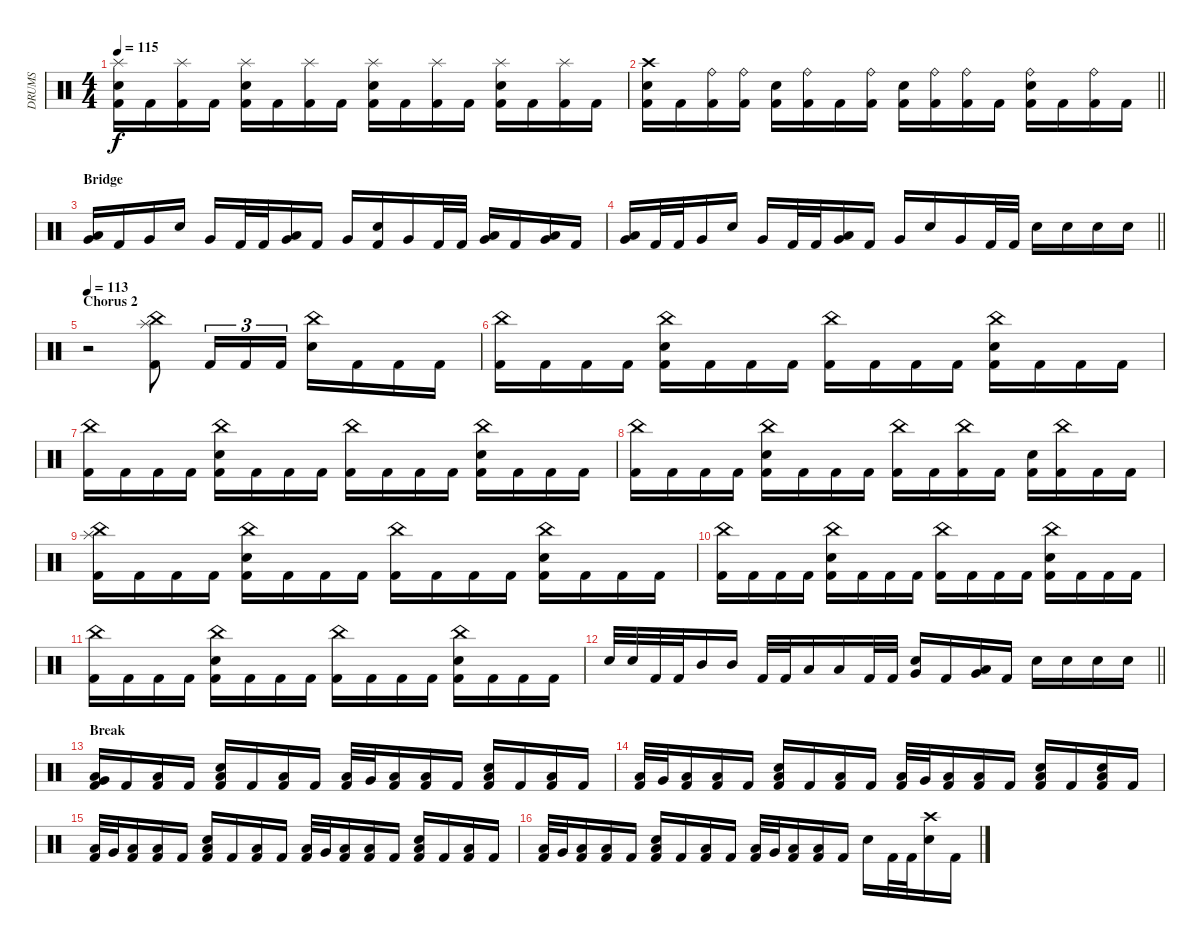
\track ("DRUMS" "DRUMS") {instrument percussion}
\staff {score}
\articulation defaults
\ts (4 4)
\tempo 115
\clef neutral
\ks c
("Splash (hit)" "Electric Snare (hit)" "Kick (hit) 2").16{dy f} "Kick (hit) 2".16 ("Splash (hit)" "Kick (hit) 2").16 "Kick (hit) 2".16 ("Splash (hit)" "Electric Snare (hit)" "Kick (hit) 2").16 "Kick (hit) 2".16 ("Splash (hit)" "Kick (hit) 2").16 "Kick (hit) 2".16 ("Splash (hit)" "Electric Snare (hit)" "Kick (hit) 2").16 "Kick (hit) 2".16 ("Splash (hit)" "Kick (hit) 2").16 "Kick (hit) 2".16 ("Splash (hit)" "Electric Snare (hit)" "Kick (hit) 2").16 "Kick (hit) 2".16 ("Splash (hit)" "Kick (hit) 2").16 "Kick (hit) 2".16 |
\barLineRight lightlight
("Crash high (hit)" "Electric Snare (hit)" "Kick (hit) 2").16 "Kick (hit) 2".16 ("Ride (bell)" "Kick (hit) 2").16 ("Ride (bell)" "Kick (hit) 2").16 ("Electric Snare (hit)" "Kick (hit) 2").16 ("Ride (bell)" "Kick (hit) 2").16 "Kick (hit) 2".16 ("Ride (bell)" "Kick (hit) 2").16 ("Electric Snare (hit)" "Kick (hit) 2").16 ("Ride (bell)" "Kick (hit) 2").16 ("Ride (bell)" "Kick (hit) 2").16 "Kick (hit) 2".16 ("Ride (bell)" "Electric Snare (hit)" "Kick (hit) 2").16 "Kick (hit) 2".16 ("Ride (bell)" "Kick (hit) 2").16 "Kick (hit) 2".16 |
\section ("" "Bridge")
("Low Tom (hit)" "Very Low Tom (hit)").16 "Kick (hit) 2".16 "Very Low Tom (hit)".16 "Electric Snare (hit)".16 "Very Low Tom (hit)".16 "Kick (hit) 2".32 "Kick (hit) 2".32 ("Low Tom (hit)" "Very Low Tom (hit)").16 "Kick (hit) 2".16 "Very Low Tom (hit)".16 ("Electric Snare (hit)" "Kick (hit) 2").16 "Very Low Tom (hit)".16 "Kick (hit) 2".32 "Kick (hit) 2".32 ("Low Tom (hit)" "Very Low Tom (hit)").16 "Kick (hit) 2".16 ("Low Tom (hit)" "Very Low Tom (hit)").16 "Kick (hit) 2".16 |
\barLineRight lightlight
("Low Tom (hit)" "Very Low Tom (hit)").16 "Kick (hit) 2".32 "Kick (hit) 2".32 "Very Low Tom (hit)".16 "Electric Snare (hit)".16 "Very Low Tom (hit)".16 "Kick (hit) 2".32 "Kick (hit) 2".32 ("Low Tom (hit)" "Very Low Tom (hit)").16 "Kick (hit) 2".16 "Very Low Tom (hit)".16 "Electric Snare (hit)".16 "Very Low Tom (hit)".16 "Kick (hit) 2".32 "Kick (hit) 2".32 "Electric Snare (hit)".16 "Electric Snare (hit)".16 "Electric Snare (hit)".16 "Electric Snare (hit)".16 |
\section ("" "Chorus 2")
\tempo 113
r.2 ("China (hit)" "Splash (hit)" "Kick (hit) 2").8 "Kick (hit) 2".16{tu (3 2)} "Kick (hit) 2".16{tu (3 2)} "Kick (hit) 2".16{tu (3 2)} ("China (hit)" "Electric Snare (hit)").16 "Kick (hit) 2".16 "Kick (hit) 2".16 "Kick (hit) 2".16 |
("China (hit)" "Kick (hit) 2").16 "Kick (hit) 2".16 "Kick (hit) 2".16 "Kick (hit) 2".16 ("China (hit)" "Electric Snare (hit)" "Kick (hit) 2").16 "Kick (hit) 2".16 "Kick (hit) 2".16 "Kick (hit) 2".16 ("China (hit)" "Kick (hit) 2").16 "Kick (hit) 2".16 "Kick (hit) 2".16 "Kick (hit) 2".16 ("China (hit)" "Electric Snare (hit)" "Kick (hit) 2").16 "Kick (hit) 2".16 "Kick (hit) 2".16 "Kick (hit) 2".16 |
("China (hit)" "Kick (hit) 2").16 "Kick (hit) 2".16 "Kick (hit) 2".16 "Kick (hit) 2".16 ("China (hit)" "Electric Snare (hit)" "Kick (hit) 2").16 "Kick (hit) 2".16 "Kick (hit) 2".16 "Kick (hit) 2".16 ("China (hit)" "Kick (hit) 2").16 "Kick (hit) 2".16 "Kick (hit) 2".16 "Kick (hit) 2".16 ("China (hit)" "Electric Snare (hit)" "Kick (hit) 2").16 "Kick (hit) 2".16 "Kick (hit) 2".16 "Kick (hit) 2".16 |
("China (hit)" "Kick (hit) 2").16 "Kick (hit) 2".16 "Kick (hit) 2".16 "Kick (hit) 2".16 ("China (hit)" "Electric Snare (hit)" "Kick (hit) 2").16 "Kick (hit) 2".16 "Kick (hit) 2".16 "Kick (hit) 2".16 ("China (hit)" "Kick (hit) 2").16 "Kick (hit) 2".16 ("China (hit)" "Kick (hit) 2").16 "Kick (hit) 2".16 ("Electric Snare (hit)" "Kick (hit) 2").16 ("China (hit)" "Kick (hit) 2").16 "Kick (hit) 2".16 "Kick (hit) 2".16 |
("China (hit)" "Splash (hit)" "Kick (hit) 2").16 "Kick (hit) 2".16 "Kick (hit) 2".16 "Kick (hit) 2".16 ("China (hit)" "Electric Snare (hit)" "Kick (hit) 2").16 "Kick (hit) 2".16 "Kick (hit) 2".16 "Kick (hit) 2".16 ("China (hit)" "Kick (hit) 2").16 "Kick (hit) 2".16 "Kick (hit) 2".16 "Kick (hit) 2".16 ("China (hit)" "Electric Snare (hit)" "Kick (hit) 2").16 "Kick (hit) 2".16 "Kick (hit) 2".16 "Kick (hit) 2".16 |
("China (hit)" "Kick (hit) 2").16 "Kick (hit) 2".16 "Kick (hit) 2".16 "Kick (hit) 2".16 ("China (hit)" "Electric Snare (hit)" "Kick (hit) 2").16 "Kick (hit) 2".16 "Kick (hit) 2".16 "Kick (hit) 2".16 ("China (hit)" "Kick (hit) 2").16 "Kick (hit) 2".16 "Kick (hit) 2".16 "Kick (hit) 2".16 ("China (hit)" "Electric Snare (hit)" "Kick (hit) 2").16 "Kick (hit) 2".16 "Kick (hit) 2".16 "Kick (hit) 2".16 |
("China (hit)" "Kick (hit) 2").16 "Kick (hit) 2".16 "Kick (hit) 2".16 "Kick (hit) 2".16 ("China (hit)" "Electric Snare (hit)" "Kick (hit) 2").16 "Kick (hit) 2".16 "Kick (hit) 2".16 "Kick (hit) 2".16 ("China (hit)" "Kick (hit) 2").16 "Kick (hit) 2".16 "Kick (hit) 2".16 "Kick (hit) 2".16 ("China (hit)" "Electric Snare (hit)" "Kick (hit) 2").16 "Kick (hit) 2".16 "Kick (hit) 2".16 "Kick (hit) 2".16 |
\barLineRight lightlight "Electric Snare (hit)".32 "Electric Snare (hit)".32 "Kick (hit) 2".32 "Kick (hit) 2".32 "Mid Tom (hit)".16 "Mid Tom (hit)".16 "Kick (hit) 2".32 "Kick (hit) 2".32 "Low Tom (hit)".16 "Low Tom (hit)".16 "Kick (hit) 2".32 "Kick (hit) 2".32
("Electric Snare (hit)" "Very Low Tom (hit)").16 "Kick (hit) 2".16 ("Very Low Tom (hit)" "Low Floor Tom (hit)").16 "Kick (hit) 2".16 "Electric Snare (hit)".16 "Electric Snare (hit)".16 "Electric Snare (hit)".16 "Electric Snare (hit)".16 |
\section ("" "Break")
("Very Low Tom (hit)" "Low Floor Tom (hit)" "Kick (hit) 2").16 "Kick (hit) 2".16 ("Low Floor Tom (hit)" "Kick (hit) 2").16 "Kick (hit) 2".16 ("Electric Snare (hit)" "Low Floor Tom (hit)" "Kick (hit) 2").16 "Kick (hit) 2".16 ("Low Floor Tom (hit)" "Kick (hit) 2").16 "Kick (hit) 2".16 ("Low Floor Tom (hit)" "Kick (hit) 2").32 "Very Low Tom (hit)".32 ("Low Floor Tom (hit)" "Kick (hit) 2").16 ("Low Floor Tom (hit)" "Kick (hit) 2").16 "Kick (hit) 2".16 ("Electric Snare (hit)" "Low Floor Tom (hit)" "Kick (hit) 2").16 "Kick (hit) 2".16 ("Low Floor Tom (hit)" "Kick (hit) 2").16 "Kick (hit) 2".16 |
("Low Floor Tom (hit)" "Kick (hit) 2").32 "Very Low Tom (hit)".32 ("Low Floor Tom (hit)" "Kick (hit) 2").16 ("Low Floor Tom (hit)" "Kick (hit) 2").16 "Kick (hit) 2".16 ("Electric Snare (hit)" "Low Floor Tom (hit)" "Kick (hit) 2").16 "Kick (hit) 2".16 ("Low Floor Tom (hit)" "Kick (hit) 2").16 "Kick (hit) 2".16 ("Low Floor Tom (hit)" "Kick (hit) 2").32 "Very Low Tom (hit)".32 ("Low Floor Tom (hit)" "Kick (hit) 2").16 ("Low Floor Tom (hit)" "Kick (hit) 2").16 "Kick (hit) 2".16 ("Electric Snare (hit)" "Low Floor Tom (hit)" "Kick (hit) 2").16 "Kick (hit) 2".16 ("Electric Snare (hit)" "Low Floor Tom (hit)" "Kick (hit) 2").16 "Kick (hit) 2".16 |
("Low Floor Tom (hit)" "Kick (hit) 2").32 "Very Low Tom (hit)".32 ("Low Floor Tom (hit)" "Kick (hit) 2").16 ("Low Floor Tom (hit)" "Kick (hit) 2").16 "Kick (hit) 2".16 ("Electric Snare (hit)" "Low Floor Tom (hit)" "Kick (hit) 2").16 "Kick (hit) 2".16 ("Low Floor Tom (hit)" "Kick (hit) 2").16 "Kick (hit) 2".16 ("Low Floor Tom (hit)" "Kick (hit) 2").32 "Very Low Tom (hit)".32 ("Low Floor Tom (hit)" "Kick (hit) 2").16 ("Low Floor Tom (hit)" "Kick (hit) 2").16 "Kick (hit) 2".16 ("Electric Snare (hit)" "Low Floor Tom (hit)" "Kick (hit) 2").16 "Kick (hit) 2".16 ("Low Floor Tom (hit)" "Kick (hit) 2").16 "Kick (hit) 2".16 |
("Low Floor Tom (hit)" "Kick (hit) 2").32 "Very Low Tom (hit)".32 ("Low Floor Tom (hit)" "Kick (hit) 2").16 ("Low Floor Tom (hit)" "Kick (hit) 2").16 "Kick (hit) 2".16 ("Electric Snare (hit)" "Low Floor Tom (hit)" "Kick (hit) 2").16 "Kick (hit) 2".16 ("Low Floor Tom (hit)" "Kick (hit) 2").16 "Kick (hit) 2".16 ("Low Floor Tom (hit)" "Kick (hit) 2").32 "Very Low Tom (hit)".32 ("Low Floor Tom (hit)" "Kick (hit) 2").16 ("Low Floor Tom (hit)" "Kick (hit) 2").16 "Kick (hit) 2".16 "Electric Snare (hit)".16 "Kick (hit) 2".32 "Kick (hit) 2".32 ("Crash high (hit)" "Electric Snare (hit)").16 "Kick (hit) 2".16
